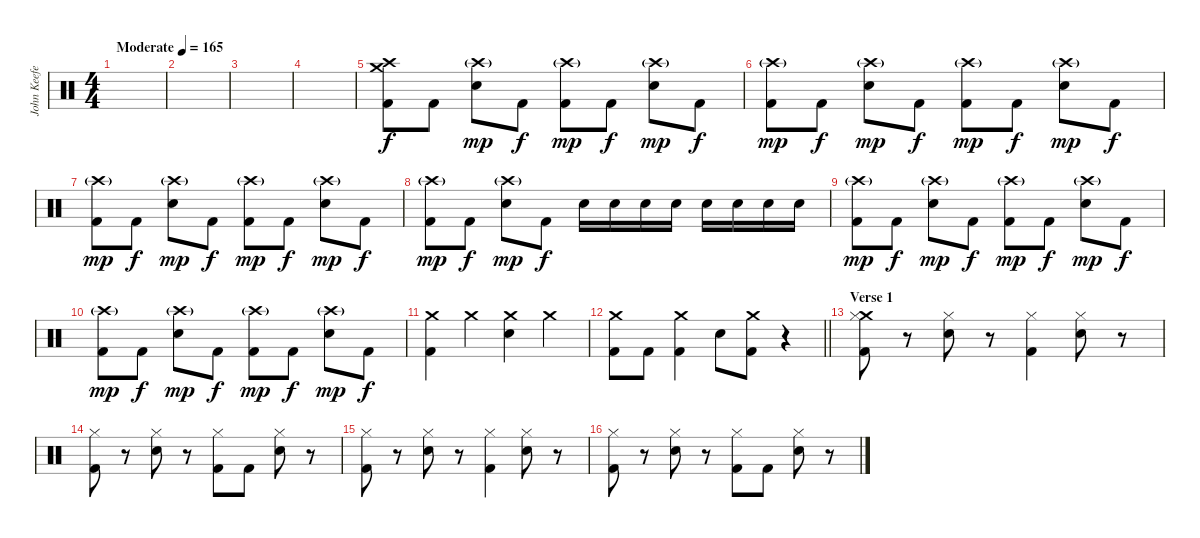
\track ("John Keefe (Percussion)" "John Keefe") {instrument percussion}
\staff {score}
\articulation defaults
\ts (4 4)
\tempo (165 "Moderate")
\clef neutral
\ks c
|
|
|
|
("Crash medium (hit)" "Crash high (hit)" "Kick (hit) 2").8 "Kick (hit) 2".8 ("Crash high (hit)"{g} "Electric Snare (hit)").8{dy mp} "Kick (hit) 2".8{dy f} ("Crash high (hit)"{g} "Kick (hit) 2").8{dy mp} "Kick (hit) 2".8{dy f} ("Crash high (hit)"{g} "Electric Snare (hit)").8{dy mp} "Kick (hit) 2".8{dy f} |
("Crash high (hit)"{g} "Kick (hit) 2").8{dy mp} "Kick (hit) 2".8{dy f} ("Crash high (hit)"{g} "Electric Snare (hit)").8{dy mp} "Kick (hit) 2".8{dy f} ("Crash high (hit)"{g} "Kick (hit) 2").8{dy mp} "Kick (hit) 2".8{dy f} ("Crash high (hit)"{g} "Electric Snare (hit)").8{dy mp} "Kick (hit) 2".8{dy f} |
("Crash high (hit)"{g} "Kick (hit) 2").8{dy mp} "Kick (hit) 2".8{dy f} ("Crash high (hit)"{g} "Electric Snare (hit)").8{dy mp} "Kick (hit) 2".8{dy f} ("Crash high (hit)"{g} "Kick (hit) 2").8{dy mp} "Kick (hit) 2".8{dy f} ("Crash high (hit)"{g} "Electric Snare (hit)").8{dy mp} "Kick (hit) 2".8{dy f} |
("Crash high (hit)"{g} "Kick (hit) 2").8{dy mp} "Kick (hit) 2".8{dy f} ("Crash high (hit)"{g} "Electric Snare (hit)").8{dy mp} "Kick (hit) 2".8{dy f} "Electric Snare (hit)".16 "Electric Snare (hit)".16 "Electric Snare (hit)".16 "Electric Snare (hit)".16 "Electric Snare (hit)".16 "Electric Snare (hit)".16 "Electric Snare (hit)".16 "Electric Snare (hit)".16 |
("Crash high (hit)"{g} "Kick (hit) 2").8{dy mp} "Kick (hit) 2".8{dy f} ("Crash high (hit)"{g} "Electric Snare (hit)").8{dy mp} "Kick (hit) 2".8{dy f} ("Crash high (hit)"{g} "Kick (hit) 2").8{dy mp} "Kick (hit) 2".8{dy f} ("Crash high (hit)"{g} "Electric Snare (hit)").8{dy mp} "Kick (hit) 2".8{dy f} |
("Crash high (hit)"{g} "Kick (hit) 2").8{dy mp} "Kick (hit) 2".8{dy f} ("Crash high (hit)"{g} "Electric Snare (hit)").8{dy mp} "Kick (hit) 2".8{dy f} ("Crash high (hit)"{g} "Kick (hit) 2").8{dy mp} "Kick (hit) 2".8{dy f} ("Crash high (hit)"{g} "Electric Snare (hit)").8{dy mp} "Kick (hit) 2".8{dy f} |
("Crash medium (hit)" "Kick (hit) 2").4 "Crash medium (hit)".4 ("Crash medium (hit)" "Electric Snare (hit)").4 "Crash medium (hit)".4 |
\barLineRight lightlight
("Crash medium (hit)" "Kick (hit) 2").8 "Kick (hit) 2".8 ("Crash medium (hit)" "Kick (hit) 2").4 "Electric Snare (hit)".8 ("Crash medium (hit)" "Kick (hit) 2").8 r.4 |
\section ("" "Verse 1")
("Crash medium (hit)" "Hi-Hat (closed)" "Kick (hit) 2").8 r.8 ("Hi-Hat (closed)" "Electric Snare (hit)").8 r.8 ("Hi-Hat (closed)" "Kick (hit) 2").4 ("Hi-Hat (closed)" "Electric Snare (hit)").8 r.8 |
("Hi-Hat (closed)" "Kick (hit) 2").8 r.8 ("Hi-Hat (closed)" "Electric Snare (hit)").8 r.8 ("Hi-Hat (closed)" "Kick (hit) 2").8 "Kick (hit) 2".8 ("Hi-Hat (closed)" "Electric Snare (hit)").8 r.8 |
("Hi-Hat (closed)" "Kick (hit) 2").8 r.8 ("Hi-Hat (closed)" "Electric Snare (hit)").8 r.8 ("Hi-Hat (closed)" "Kick (hit) 2").4 ("Hi-Hat (closed)" "Electric Snare (hit)").8 r.8 |
("Hi-Hat (closed)" "Kick (hit) 2").8 r.8 ("Hi-Hat (closed)" "Electric Snare (hit)").8 r.8 ("Hi-Hat (closed)" "Kick (hit) 2").8 "Kick (hit) 2".8 ("Hi-Hat (closed)" "Electric Snare (hit)").8 r.8
